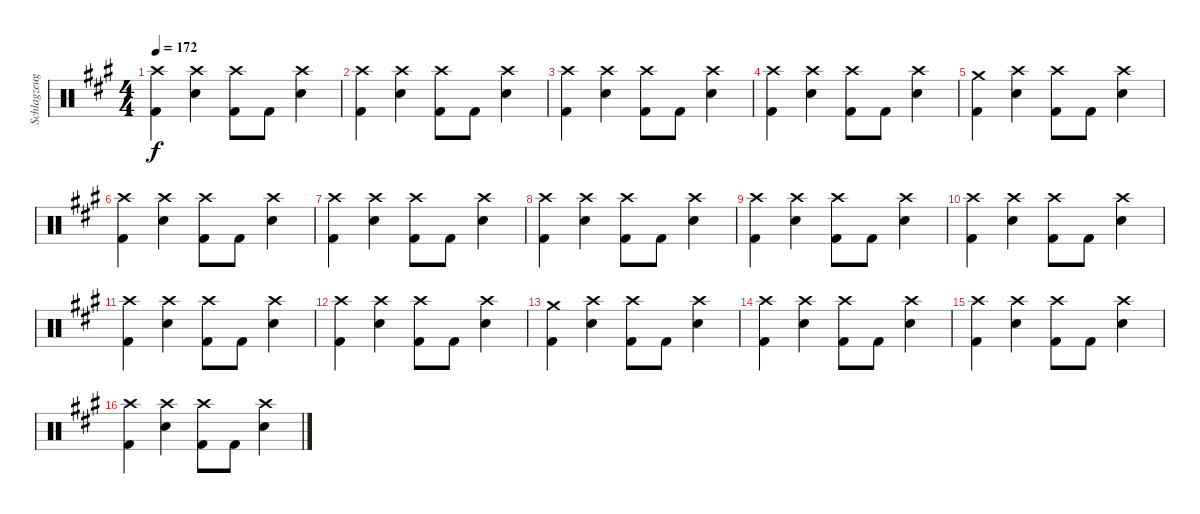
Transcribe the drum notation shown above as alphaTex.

\track ("Schlagzeug" "Schlagzeug") {instrument percussion}
\staff {score}
\articulation defaults
\ts (4 4)
\tempo 172
\clef neutral
\ks a
("Crash high (hit)" "Kick (hit) 2").4{dy f} ("Crash high (hit)" "Snare (hit) 2").4 ("Crash high (hit)" "Kick (hit) 2").8 "Kick (hit) 2".8 ("Crash high (hit)" "Snare (hit) 2").4 |
("Crash high (hit)" "Kick (hit) 2").4 ("Crash high (hit)" "Snare (hit) 2").4 ("Crash high (hit)" "Kick (hit) 2").8 "Kick (hit) 2".8 ("Crash high (hit)" "Snare (hit) 2").4 |
("Crash high (hit)" "Kick (hit) 2").4 ("Crash high (hit)" "Snare (hit) 2").4 ("Crash high (hit)" "Kick (hit) 2").8 "Kick (hit) 2".8 ("Crash high (hit)" "Snare (hit) 2").4 |
("Crash high (hit)" "Kick (hit) 2").4 ("Crash high (hit)" "Snare (hit) 2").4 ("Crash high (hit)" "Kick (hit) 2").8 "Kick (hit) 2".8 ("Crash high (hit)" "Snare (hit) 2").4 |
("Crash medium (hit)" "Kick (hit) 2").4 ("Crash high (hit)" "Snare (hit) 2").4 ("Crash high (hit)" "Kick (hit) 2").8 "Kick (hit) 2".8 ("Crash high (hit)" "Snare (hit) 2").4 |
("Crash high (hit)" "Kick (hit) 2").4 ("Crash high (hit)" "Snare (hit) 2").4 ("Crash high (hit)" "Kick (hit) 2").8 "Kick (hit) 2".8 ("Crash high (hit)" "Snare (hit) 2").4 |
("Crash high (hit)" "Kick (hit) 2").4 ("Crash high (hit)" "Snare (hit) 2").4 ("Crash high (hit)" "Kick (hit) 2").8 "Kick (hit) 2".8 ("Crash high (hit)" "Snare (hit) 2").4 |
("Crash high (hit)" "Kick (hit) 2").4 ("Crash high (hit)" "Snare (hit) 2").4 ("Crash high (hit)" "Kick (hit) 2").8 "Kick (hit) 2".8 ("Crash high (hit)" "Snare (hit) 2").4 |
("Crash high (hit)" "Kick (hit) 2").4 ("Crash high (hit)" "Snare (hit) 2").4 ("Crash high (hit)" "Kick (hit) 2").8 "Kick (hit) 2".8 ("Crash high (hit)" "Snare (hit) 2").4 |
("Crash high (hit)" "Kick (hit) 2").4 ("Crash high (hit)" "Snare (hit) 2").4 ("Crash high (hit)" "Kick (hit) 2").8 "Kick (hit) 2".8 ("Crash high (hit)" "Snare (hit) 2").4 |
("Crash high (hit)" "Kick (hit) 2").4 ("Crash high (hit)" "Snare (hit) 2").4 ("Crash high (hit)" "Kick (hit) 2").8 "Kick (hit) 2".8 ("Crash high (hit)" "Snare (hit) 2").4 |
("Crash high (hit)" "Kick (hit) 2").4 ("Crash high (hit)" "Snare (hit) 2").4 ("Crash high (hit)" "Kick (hit) 2").8 "Kick (hit) 2".8 ("Crash high (hit)" "Snare (hit) 2").4 |
("Crash medium (hit)" "Kick (hit) 2").4 ("Crash high (hit)" "Snare (hit) 2").4 ("Crash high (hit)" "Kick (hit) 2").8 "Kick (hit) 2".8 ("Crash high (hit)" "Snare (hit) 2").4 |
("Crash high (hit)" "Kick (hit) 2").4 ("Crash high (hit)" "Snare (hit) 2").4 ("Crash high (hit)" "Kick (hit) 2").8 "Kick (hit) 2".8 ("Crash high (hit)" "Snare (hit) 2").4 |
("Crash high (hit)" "Kick (hit) 2").4 ("Crash high (hit)" "Snare (hit) 2").4 ("Crash high (hit)" "Kick (hit) 2").8 "Kick (hit) 2".8 ("Crash high (hit)" "Snare (hit) 2").4 |
("Crash high (hit)" "Kick (hit) 2").4 ("Crash high (hit)" "Snare (hit) 2").4 ("Crash high (hit)" "Kick (hit) 2").8 "Kick (hit) 2".8 ("Crash high (hit)" "Snare (hit) 2").4
